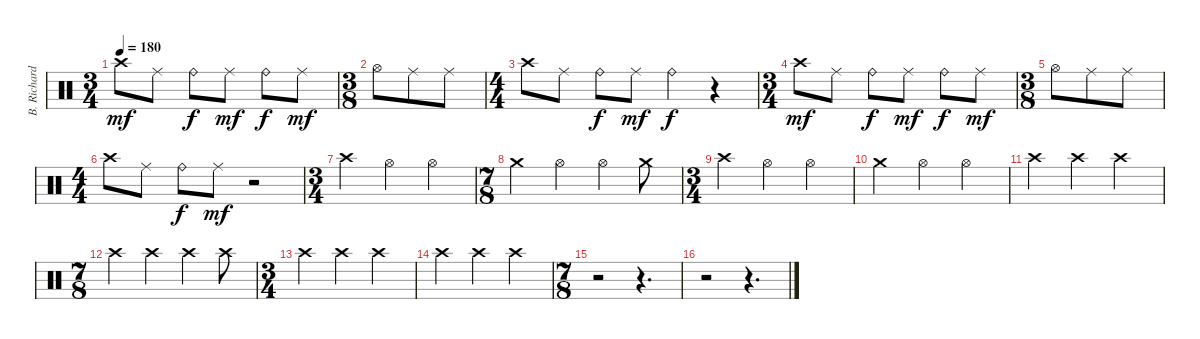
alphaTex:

\track ("B. Richardson Drums" "B. Richard") {instrument percussion}
\staff {score}
\articulation defaults
\ts (3 4)
\tempo 180
\clef neutral
\ks c "Crash high (hit)".8{dy mf} "Ride (middle)".8 "Ride (bell)".8{dy f} "Ride (middle)".8{dy mf} "Ride (bell)".8{dy f} "Ride (middle)".8{dy mf}
|
\ts (3 8)
"Hi-Hat (open)".8 "Ride (middle)".8 "Ride (middle)".8 |
\ts (4 4)
"Crash high (hit)".8 "Ride (middle)".8 "Ride (bell)".8{dy f} "Ride (middle)".8{dy mf} "Ride (bell)".4{dy f} r.4 |
\ts (3 4)
"Crash high (hit)".8{dy mf} "Ride (middle)".8 "Ride (bell)".8{dy f} "Ride (middle)".8{dy mf} "Ride (bell)".8{dy f} "Ride (middle)".8{dy mf} |
\ts (3 8)
"Hi-Hat (open)".8 "Ride (middle)".8 "Ride (middle)".8 |
\ts (4 4)
"Crash high (hit)".8 "Ride (middle)".8 "Ride (bell)".8{dy f} "Ride (middle)".8{dy mf} r.2 |
\ts (3 4)
"Crash high (hit)".4 "Hi-Hat (open)".4 "Hi-Hat (open)".4 |
\ts (7 8)
"Crash medium (hit)".4 "Hi-Hat (open)".4 "Hi-Hat (open)".4 "Crash medium (hit)".8 |
\ts (3 4)
"Crash high (hit)".4 "Hi-Hat (open)".4 "Hi-Hat (open)".4 |
"Crash medium (hit)".4 "Hi-Hat (open)".4 "Hi-Hat (open)".4 |
"Crash high (hit)".4 "Crash high (hit)".4 "Crash high (hit)".4 |
\ts (7 8)
"Crash high (hit)".4 "Crash high (hit)".4 "Crash high (hit)".4 "Crash high (hit)".8 |
\ts (3 4)
"Crash high (hit)".4 "Crash high (hit)".4 "Crash high (hit)".4 |
"Crash high (hit)".4 "Crash high (hit)".4 "Crash high (hit)".4 |
\ts (7 8)
r.2 r.4{d} |
r.2 r.4{d}
